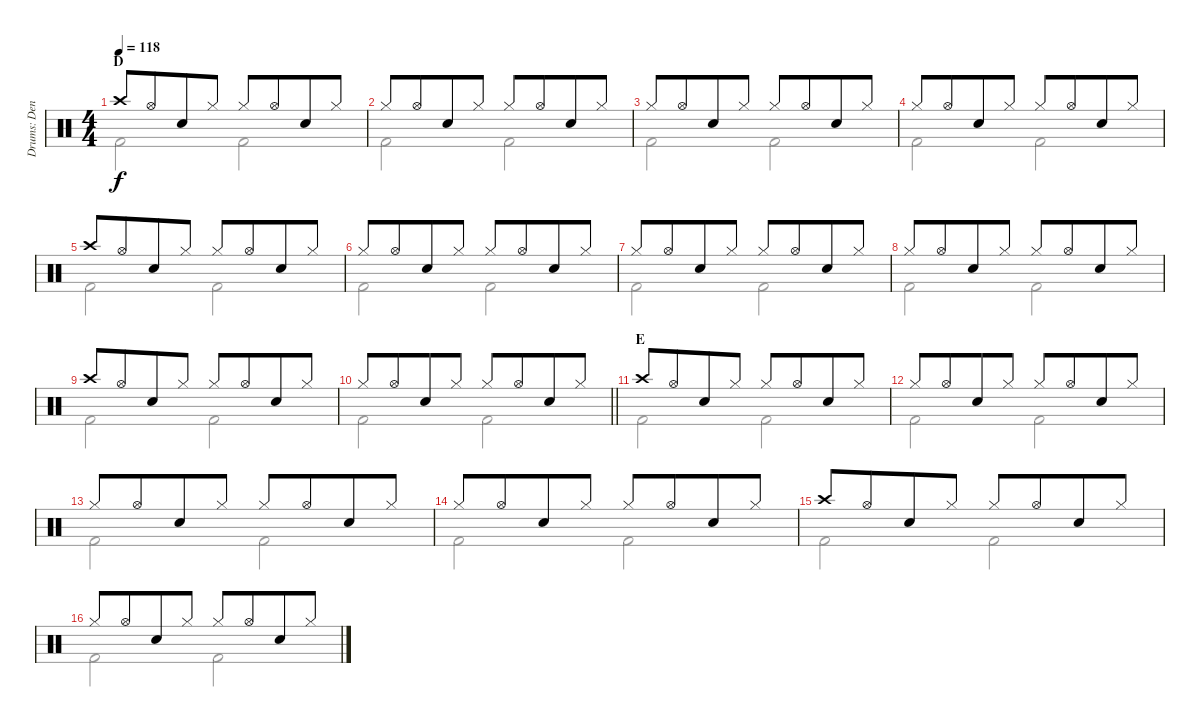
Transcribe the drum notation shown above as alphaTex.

\track ("Drums: Denny" "Drums: Den") {instrument percussion}
\staff {score}
\articulation defaults
\voice
\ts (4 4)
\section ("" "D")
\tempo 118
\clef neutral
\ks c "Crash high (hit)".8{dy f} "Hi-Hat (open)".8{beam merge} "Snare (hit) 2".8 "Hi-Hat (closed)".8 "Hi-Hat (closed)".8 "Hi-Hat (open)".8{beam merge} "Snare (hit) 2".8 "Hi-Hat (closed)".8
|
"Hi-Hat (closed)".8 "Hi-Hat (open)".8{beam merge} "Snare (hit) 2".8 "Hi-Hat (closed)".8 "Hi-Hat (closed)".8 "Hi-Hat (open)".8{beam merge} "Snare (hit) 2".8 "Hi-Hat (closed)".8 |
"Hi-Hat (closed)".8 "Hi-Hat (open)".8{beam merge} "Snare (hit) 2".8 "Hi-Hat (closed)".8 "Hi-Hat (closed)".8 "Hi-Hat (open)".8{beam merge} "Snare (hit) 2".8 "Hi-Hat (closed)".8 |
"Hi-Hat (closed)".8 "Hi-Hat (open)".8{beam merge} "Snare (hit) 2".8 "Hi-Hat (closed)".8 "Hi-Hat (closed)".8 "Hi-Hat (open)".8{beam merge} "Snare (hit) 2".8 "Hi-Hat (closed)".8 |
"Crash high (hit)".8 "Hi-Hat (open)".8{beam merge} "Snare (hit) 2".8 "Hi-Hat (closed)".8 "Hi-Hat (closed)".8 "Hi-Hat (open)".8{beam merge} "Snare (hit) 2".8 "Hi-Hat (closed)".8 |
"Hi-Hat (closed)".8 "Hi-Hat (open)".8{beam merge} "Snare (hit) 2".8 "Hi-Hat (closed)".8 "Hi-Hat (closed)".8 "Hi-Hat (open)".8{beam merge} "Snare (hit) 2".8 "Hi-Hat (closed)".8 |
"Hi-Hat (closed)".8 "Hi-Hat (open)".8{beam merge} "Snare (hit) 2".8 "Hi-Hat (closed)".8 "Hi-Hat (closed)".8 "Hi-Hat (open)".8{beam merge} "Snare (hit) 2".8 "Hi-Hat (closed)".8 |
"Hi-Hat (closed)".8 "Hi-Hat (open)".8{beam merge} "Snare (hit) 2".8 "Hi-Hat (closed)".8 "Hi-Hat (closed)".8 "Hi-Hat (open)".8{beam merge} "Snare (hit) 2".8 "Hi-Hat (closed)".8 |
"Crash high (hit)".8 "Hi-Hat (open)".8{beam merge} "Snare (hit) 2".8 "Hi-Hat (closed)".8 "Hi-Hat (closed)".8 "Hi-Hat (open)".8{beam merge} "Snare (hit) 2".8 "Hi-Hat (closed)".8 |
\barLineRight lightlight "Hi-Hat (closed)".8 "Hi-Hat (open)".8{beam merge} "Snare (hit) 2".8 "Hi-Hat (closed)".8 "Hi-Hat (closed)".8 "Hi-Hat (open)".8{beam merge} "Snare (hit) 2".8 "Hi-Hat (closed)".8
|
\section ("" "E")
"Crash high (hit)".8 "Hi-Hat (open)".8{beam merge} "Snare (hit) 2".8 "Hi-Hat (closed)".8 "Hi-Hat (closed)".8 "Hi-Hat (open)".8{beam merge} "Snare (hit) 2".8 "Hi-Hat (closed)".8 |
"Hi-Hat (closed)".8 "Hi-Hat (open)".8{beam merge} "Snare (hit) 2".8 "Hi-Hat (closed)".8 "Hi-Hat (closed)".8 "Hi-Hat (open)".8{beam merge} "Snare (hit) 2".8 "Hi-Hat (closed)".8 |
"Hi-Hat (closed)".8 "Hi-Hat (open)".8{beam merge} "Snare (hit) 2".8 "Hi-Hat (closed)".8 "Hi-Hat (closed)".8 "Hi-Hat (open)".8{beam merge} "Snare (hit) 2".8 "Hi-Hat (closed)".8 |
"Hi-Hat (closed)".8 "Hi-Hat (open)".8{beam merge} "Snare (hit) 2".8 "Hi-Hat (closed)".8 "Hi-Hat (closed)".8 "Hi-Hat (open)".8{beam merge} "Snare (hit) 2".8 "Hi-Hat (closed)".8 |
"Crash high (hit)".8 "Hi-Hat (open)".8{beam merge} "Snare (hit) 2".8 "Hi-Hat (closed)".8 "Hi-Hat (closed)".8 "Hi-Hat (open)".8{beam merge} "Snare (hit) 2".8 "Hi-Hat (closed)".8 |
"Hi-Hat (closed)".8 "Hi-Hat (open)".8{beam merge} "Snare (hit) 2".8 "Hi-Hat (closed)".8 "Hi-Hat (closed)".8 "Hi-Hat (open)".8{beam merge} "Snare (hit) 2".8 "Hi-Hat (closed)".8
\voice
\clef neutral
\ottava regular
\simile none
\ks c "Kick (hit) 2".2{dy f} "Kick (hit) 2".2
|
"Kick (hit) 2".2 "Kick (hit) 2".2 |
"Kick (hit) 2".2 "Kick (hit) 2".2 |
"Kick (hit) 2".2 "Kick (hit) 2".2 |
"Kick (hit) 2".2 "Kick (hit) 2".2 |
"Kick (hit) 2".2 "Kick (hit) 2".2 |
"Kick (hit) 2".2 "Kick (hit) 2".2 |
"Kick (hit) 2".2 "Kick (hit) 2".2 |
"Kick (hit) 2".2 "Kick (hit) 2".2 |
\barLineRight lightlight "Kick (hit) 2".2 "Kick (hit) 2".2
|
"Kick (hit) 2".2 "Kick (hit) 2".2 |
"Kick (hit) 2".2 "Kick (hit) 2".2 |
"Kick (hit) 2".2 "Kick (hit) 2".2 |
"Kick (hit) 2".2 "Kick (hit) 2".2 |
"Kick (hit) 2".2 "Kick (hit) 2".2 |
"Kick (hit) 2".2 "Kick (hit) 2".2
